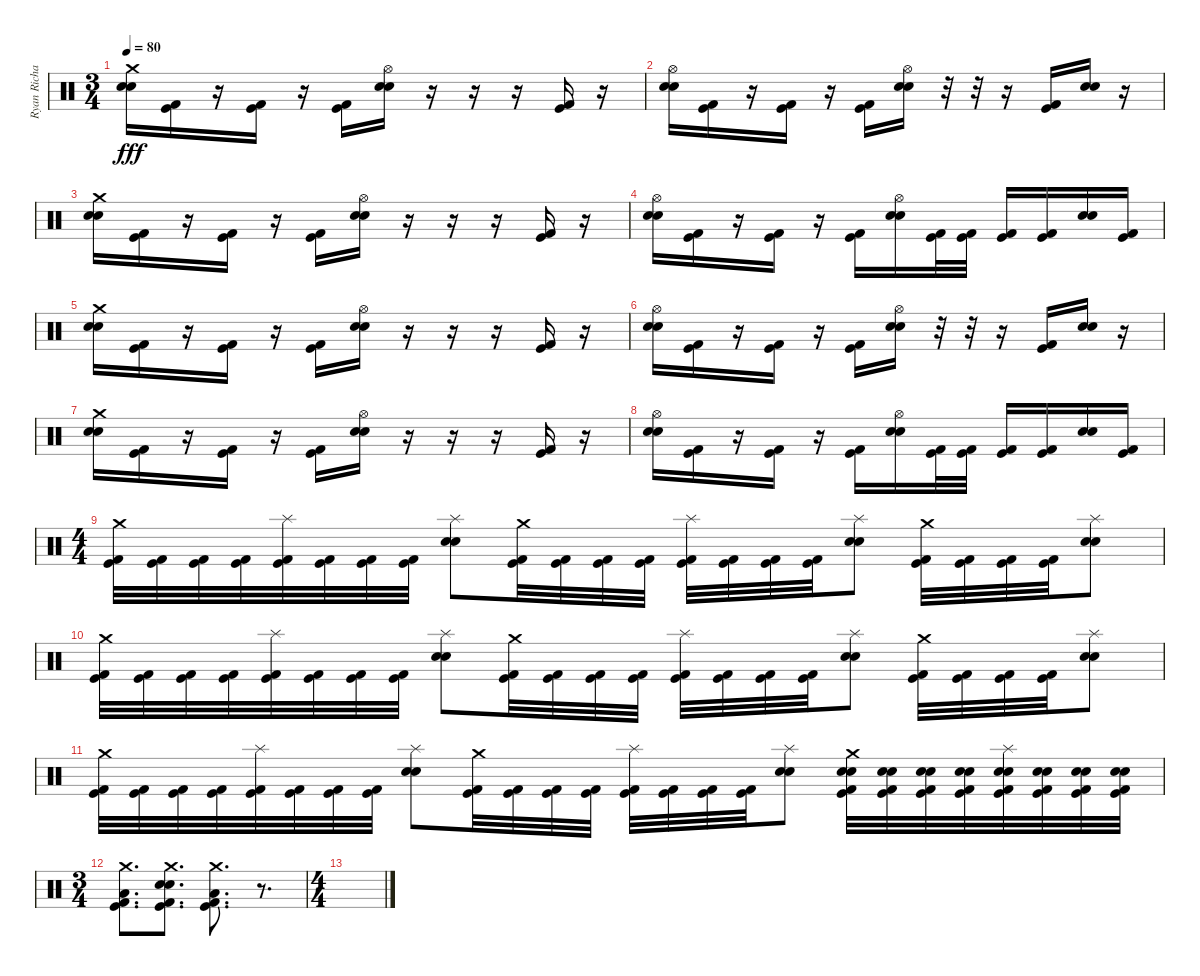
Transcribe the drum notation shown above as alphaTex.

\track ("Ryan Richards" "Ryan Richa") {instrument percussion}
\staff {score}
\articulation defaults
\ts (3 4)
\tempo 80
\clef neutral
\ks c
("Crash medium (hit)" "Snare (hit) 2" "Electric Snare (hit)").16{dy fff} ("Kick (hit)" "Kick (hit) 2").16 r.16 ("Kick (hit)" "Kick (hit) 2").16 r.16 ("Kick (hit)" "Kick (hit) 2").16 ("Hi-Hat (open)" "Snare (hit) 2" "Electric Snare (hit)").16 r.16 r.16 r.16 ("Kick (hit)" "Kick (hit) 2").16 r.16 |
("Hi-Hat (open)" "Snare (hit) 2" "Electric Snare (hit)").16 ("Kick (hit)" "Kick (hit) 2").16 r.16 ("Kick (hit)" "Kick (hit) 2").16 r.16 ("Kick (hit)" "Kick (hit) 2").16 ("Hi-Hat (open)" "Snare (hit) 2" "Electric Snare (hit)").16 r.32 r.32 r.16 ("Kick (hit)" "Kick (hit) 2").16 ("Snare (hit) 2" "Electric Snare (hit)").16 r.16 |
("Crash medium (hit)" "Snare (hit) 2" "Electric Snare (hit)").16 ("Kick (hit)" "Kick (hit) 2").16 r.16 ("Kick (hit)" "Kick (hit) 2").16 r.16 ("Kick (hit)" "Kick (hit) 2").16 ("Hi-Hat (open)" "Snare (hit) 2" "Electric Snare (hit)").16 r.16 r.16 r.16 ("Kick (hit)" "Kick (hit) 2").16 r.16 |
("Hi-Hat (open)" "Snare (hit) 2" "Electric Snare (hit)").16 ("Kick (hit)" "Kick (hit) 2").16 r.16 ("Kick (hit)" "Kick (hit) 2").16 r.16 ("Kick (hit)" "Kick (hit) 2").16 ("Hi-Hat (open)" "Snare (hit) 2" "Electric Snare (hit)").16 ("Kick (hit)" "Kick (hit) 2").32 ("Kick (hit)" "Kick (hit) 2").32 ("Kick (hit)" "Kick (hit) 2").16 ("Kick (hit)" "Kick (hit) 2").16 ("Snare (hit) 2" "Electric Snare (hit)").16 ("Kick (hit)" "Kick (hit) 2").16 |
("Crash medium (hit)" "Snare (hit) 2" "Electric Snare (hit)").16 ("Kick (hit)" "Kick (hit) 2").16 r.16 ("Kick (hit)" "Kick (hit) 2").16 r.16 ("Kick (hit)" "Kick (hit) 2").16 ("Hi-Hat (open)" "Snare (hit) 2" "Electric Snare (hit)").16 r.16 r.16 r.16 ("Kick (hit)" "Kick (hit) 2").16 r.16 |
("Hi-Hat (open)" "Snare (hit) 2" "Electric Snare (hit)").16 ("Kick (hit)" "Kick (hit) 2").16 r.16 ("Kick (hit)" "Kick (hit) 2").16 r.16 ("Kick (hit)" "Kick (hit) 2").16 ("Hi-Hat (open)" "Snare (hit) 2" "Electric Snare (hit)").16 r.32 r.32 r.16 ("Kick (hit)" "Kick (hit) 2").16 ("Snare (hit) 2" "Electric Snare (hit)").16 r.16 |
("Crash medium (hit)" "Snare (hit) 2" "Electric Snare (hit)").16 ("Kick (hit)" "Kick (hit) 2").16 r.16 ("Kick (hit)" "Kick (hit) 2").16 r.16 ("Kick (hit)" "Kick (hit) 2").16 ("Hi-Hat (open)" "Snare (hit) 2" "Electric Snare (hit)").16 r.16 r.16 r.16 ("Kick (hit)" "Kick (hit) 2").16 r.16 |
("Hi-Hat (open)" "Snare (hit) 2" "Electric Snare (hit)").16 ("Kick (hit)" "Kick (hit) 2").16 r.16 ("Kick (hit)" "Kick (hit) 2").16 r.16 ("Kick (hit)" "Kick (hit) 2").16 ("Hi-Hat (open)" "Snare (hit) 2" "Electric Snare (hit)").16 ("Kick (hit)" "Kick (hit) 2").32 ("Kick (hit)" "Kick (hit) 2").32 ("Kick (hit)" "Kick (hit) 2").16 ("Kick (hit)" "Kick (hit) 2").16 ("Snare (hit) 2" "Electric Snare (hit)").16 ("Kick (hit)" "Kick (hit) 2").16 |
\ts (4 4)
("Kick (hit)" "Crash medium (hit)" "Kick (hit) 2").32 ("Kick (hit)" "Kick (hit) 2").32 ("Kick (hit)" "Kick (hit) 2").32 ("Kick (hit)" "Kick (hit) 2").32 ("Kick (hit)" "Splash (hit)" "Kick (hit) 2").32 ("Kick (hit)" "Kick (hit) 2").32 ("Kick (hit)" "Kick (hit) 2").32 ("Kick (hit)" "Kick (hit) 2").32 ("Splash (hit)" "Snare (hit) 2" "Electric Snare (hit)").8 ("Kick (hit)" "Crash medium (hit)" "Kick (hit) 2").32 ("Kick (hit)" "Kick (hit) 2").32 ("Kick (hit)" "Kick (hit) 2").32 ("Kick (hit)" "Kick (hit) 2").32 ("Kick (hit)" "Splash (hit)" "Kick (hit) 2").32 ("Kick (hit)" "Kick (hit) 2").32 ("Kick (hit)" "Kick (hit) 2").32 ("Kick (hit)" "Kick (hit) 2").32 ("Splash (hit)" "Snare (hit) 2" "Electric Snare (hit)").8 ("Kick (hit)" "Crash medium (hit)" "Kick (hit) 2").32 ("Kick (hit)" "Kick (hit) 2").32 ("Kick (hit)" "Kick (hit) 2").32 ("Kick (hit)" "Kick (hit) 2").32 ("Splash (hit)" "Snare (hit) 2" "Electric Snare (hit)").8 |
("Kick (hit)" "Crash medium (hit)" "Kick (hit) 2").32 ("Kick (hit)" "Kick (hit) 2").32 ("Kick (hit)" "Kick (hit) 2").32 ("Kick (hit)" "Kick (hit) 2").32 ("Kick (hit)" "Splash (hit)" "Kick (hit) 2").32 ("Kick (hit)" "Kick (hit) 2").32 ("Kick (hit)" "Kick (hit) 2").32 ("Kick (hit)" "Kick (hit) 2").32 ("Splash (hit)" "Snare (hit) 2" "Electric Snare (hit)").8 ("Kick (hit)" "Crash medium (hit)" "Kick (hit) 2").32 ("Kick (hit)" "Kick (hit) 2").32 ("Kick (hit)" "Kick (hit) 2").32 ("Kick (hit)" "Kick (hit) 2").32 ("Kick (hit)" "Splash (hit)" "Kick (hit) 2").32 ("Kick (hit)" "Kick (hit) 2").32 ("Kick (hit)" "Kick (hit) 2").32 ("Kick (hit)" "Kick (hit) 2").32 ("Splash (hit)" "Snare (hit) 2" "Electric Snare (hit)").8 ("Kick (hit)" "Crash medium (hit)" "Kick (hit) 2").32 ("Kick (hit)" "Kick (hit) 2").32 ("Kick (hit)" "Kick (hit) 2").32 ("Kick (hit)" "Kick (hit) 2").32 ("Splash (hit)" "Snare (hit) 2" "Electric Snare (hit)").8 |
("Kick (hit)" "Crash medium (hit)" "Kick (hit) 2").32 ("Kick (hit)" "Kick (hit) 2").32 ("Kick (hit)" "Kick (hit) 2").32 ("Kick (hit)" "Kick (hit) 2").32 ("Kick (hit)" "Splash (hit)" "Kick (hit) 2").32 ("Kick (hit)" "Kick (hit) 2").32 ("Kick (hit)" "Kick (hit) 2").32 ("Kick (hit)" "Kick (hit) 2").32 ("Splash (hit)" "Snare (hit) 2" "Electric Snare (hit)").8 ("Kick (hit)" "Crash medium (hit)" "Kick (hit) 2").32 ("Kick (hit)" "Kick (hit) 2").32 ("Kick (hit)" "Kick (hit) 2").32 ("Kick (hit)" "Kick (hit) 2").32 ("Kick (hit)" "Splash (hit)" "Kick (hit) 2").32 ("Kick (hit)" "Kick (hit) 2").32 ("Kick (hit)" "Kick (hit) 2").32 ("Kick (hit)" "Kick (hit) 2").32 ("Splash (hit)" "Snare (hit) 2" "Electric Snare (hit)").8 ("Kick (hit)" "Crash medium (hit)" "Snare (hit) 2" "Electric Snare (hit)" "Kick (hit) 2").32 ("Kick (hit)" "Snare (hit) 2" "Electric Snare (hit)" "Kick (hit) 2").32 ("Kick (hit)" "Snare (hit) 2" "Electric Snare (hit)" "Kick (hit) 2").32 ("Kick (hit)" "Snare (hit) 2" "Electric Snare (hit)" "Kick (hit) 2").32 ("Kick (hit)" "Splash (hit)" "Snare (hit) 2" "Electric Snare (hit)" "Kick (hit) 2").32 ("Kick (hit)" "Snare (hit) 2" "Electric Snare (hit)" "Kick (hit) 2").32 ("Kick (hit)" "Snare (hit) 2" "Electric Snare (hit)" "Kick (hit) 2").32 ("Kick (hit)" "Snare (hit) 2" "Electric Snare (hit)" "Kick (hit) 2").32 |
\ts (3 4)
("Kick (hit)" "Crash medium (hit)" "Low Tom (hit)" "Kick (hit) 2").8{d} ("Kick (hit)" "Crash medium (hit)" "Snare (hit) 2" "Electric Snare (hit)" "Kick (hit) 2").8{d} ("Kick (hit)" "Crash medium (hit)" "Low Floor Tom (hit)" "Kick (hit) 2").8{d} r.8{d} |
\ts (4 4)
